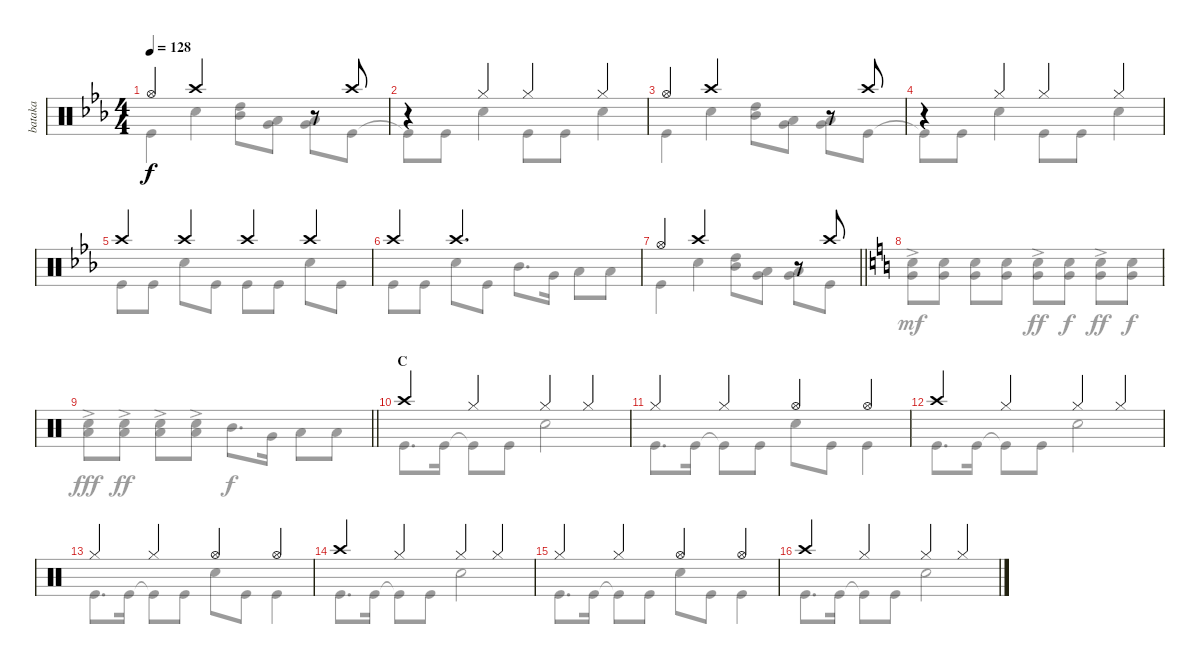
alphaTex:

\track ("bataka" "bataka") {mute instrument percussion}
\staff {score}
\articulation defaults
\voice
\ts (4 4)
\tempo 128
\clef neutral
\ks eb "Hi-Hat (open)".4{dy f} "Crash high (hit)".2
r.8 "Crash high (hit)".8 |
r.4 "Hi-Hat (closed)".4 "Hi-Hat (closed)".4 "Hi-Hat (closed)".4 |
"Hi-Hat (open)".4 "Crash high (hit)".2 r.8 "Crash high (hit)".8 |
r.4 "Hi-Hat (closed)".4 "Hi-Hat (closed)".4 "Hi-Hat (closed)".4 |
"Crash high (hit)".4 "Crash high (hit)".4 "Crash high (hit)".4 "Crash high (hit)".4 |
"Crash high (hit)".4 "Crash high (hit)".2{d} |
\barLineRight lightlight "Hi-Hat (open)".4 "Crash high (hit)".2
r.8 "Crash high (hit)".8 |
\section ("" "")
\ks c
|
\barLineRight lightlight
|
\section ("" "C")
"Crash high (hit)".4 "Hi-Hat (closed)".4 "Hi-Hat (closed)".4 "Hi-Hat (closed)".4 |
"Hi-Hat (closed)".4 "Hi-Hat (closed)".4 "Hi-Hat (open)".4 "Hi-Hat (open)".4 |
"Crash high (hit)".4 "Hi-Hat (closed)".4 "Hi-Hat (closed)".4 "Hi-Hat (closed)".4 |
"Hi-Hat (closed)".4 "Hi-Hat (closed)".4 "Hi-Hat (open)".4 "Hi-Hat (open)".4 |
"Crash high (hit)".4 "Hi-Hat (closed)".4 "Hi-Hat (closed)".4 "Hi-Hat (closed)".4 |
"Hi-Hat (closed)".4 "Hi-Hat (closed)".4 "Hi-Hat (open)".4 "Hi-Hat (open)".4 |
"Crash high (hit)".4 "Hi-Hat (closed)".4 "Hi-Hat (closed)".4 "Hi-Hat (closed)".4
\voice
\clef neutral
\ottava regular
\simile none
\ks eb "Kick (hit)".4{dy f} "Snare (hit) 2".4
("High Tom (hit)" "Mid Tom (hit)").8 ("Low Tom (hit)" "Very Low Tom (hit)").8 ("Low Floor Tom (hit)" "Very Low Tom (hit)").8 "Kick (hit)".8 |
"Kick (hit)"{t}.8 "Kick (hit)".8 "Snare (hit) 2".4 "Kick (hit)".8 "Kick (hit)".8 "Snare (hit) 2".4 |
"Kick (hit)".4 "Snare (hit) 2".4 ("High Tom (hit)" "Mid Tom (hit)").8 ("Low Tom (hit)" "Very Low Tom (hit)").8 ("Low Floor Tom (hit)" "Very Low Tom (hit)").8 "Kick (hit)".8 |
"Kick (hit)"{t}.8 "Kick (hit)".8 "Snare (hit) 2".4 "Kick (hit)".8 "Kick (hit)".8 "Snare (hit) 2".4 |
"Kick (hit)".8 "Kick (hit)".8 "Snare (hit) 2".8 "Kick (hit)".8 "Kick (hit)".8 "Kick (hit)".8 "Snare (hit) 2".8 "Kick (hit)".8 |
"Kick (hit)".8 "Kick (hit)".8 "Snare (hit) 2".8 "Kick (hit)".8 "Mid Tom (hit)".8{d} "Very Low Tom (hit)".16 "Low Floor Tom (hit)".8 "Low Floor Tom (hit)".8 |
\barLineRight lightlight "Kick (hit)".4 "Snare (hit) 2".4
("High Tom (hit)" "Mid Tom (hit)").8 ("Low Tom (hit)" "Very Low Tom (hit)").8 ("Low Floor Tom (hit)" "Very Low Tom (hit)").8 "Kick (hit)".8 |
\ks c
("Very Low Tom (hit)"{ac} "Snare (hit) 2").8{dy mf} ("Snare (hit) 2" "Very Low Tom (hit)").8 ("Very Low Tom (hit)" "Snare (hit) 2").8 ("Very Low Tom (hit)" "Snare (hit) 2").8 ("Very Low Tom (hit)"{ac} "Snare (hit) 2").8{dy ff} ("Very Low Tom (hit)" "Snare (hit) 2").8{dy f} ("Very Low Tom (hit)"{ac} "Snare (hit) 2").8{dy ff} ("Very Low Tom (hit)" "Snare (hit) 2").8{dy f} |
\barLineRight lightlight
("Low Floor Tom (hit)"{ac} "Snare (hit) 2"{ac}).8{dy fff} ("Snare (hit) 2"{ac} "Low Floor Tom (hit)"{ac}).8{dy ff} ("Low Floor Tom (hit)"{ac} "Snare (hit) 2"{ac}).8 ("Snare (hit) 2"{ac} "Low Floor Tom (hit)"{ac}).8 "Mid Tom (hit)".8{d dy f} "Very Low Tom (hit)".16 "Low Floor Tom (hit)".8 "Low Floor Tom (hit)".8 |
"Kick (hit)".8{d} "Kick (hit)".16 "Kick (hit)"{t}.8 "Kick (hit)".8 "Snare (hit) 2".2 |
"Kick (hit)".8{d} "Kick (hit)".16 "Kick (hit)"{t}.8 "Kick (hit)".8 "Snare (hit) 2".8 "Kick (hit)".8 "Kick (hit)".4 |
"Kick (hit)".8{d} "Kick (hit)".16 "Kick (hit)"{t}.8 "Kick (hit)".8 "Snare (hit) 2".2 |
"Kick (hit)".8{d} "Kick (hit)".16 "Kick (hit)"{t}.8 "Kick (hit)".8 "Snare (hit) 2".8 "Kick (hit)".8 "Kick (hit)".4 |
"Kick (hit)".8{d} "Kick (hit)".16 "Kick (hit)"{t}.8 "Kick (hit)".8 "Snare (hit) 2".2 |
"Kick (hit)".8{d} "Kick (hit)".16 "Kick (hit)"{t}.8 "Kick (hit)".8 "Snare (hit) 2".8 "Kick (hit)".8 "Kick (hit)".4 |
"Kick (hit)".8{d} "Kick (hit)".16 "Kick (hit)"{t}.8 "Kick (hit)".8 "Snare (hit) 2".2
